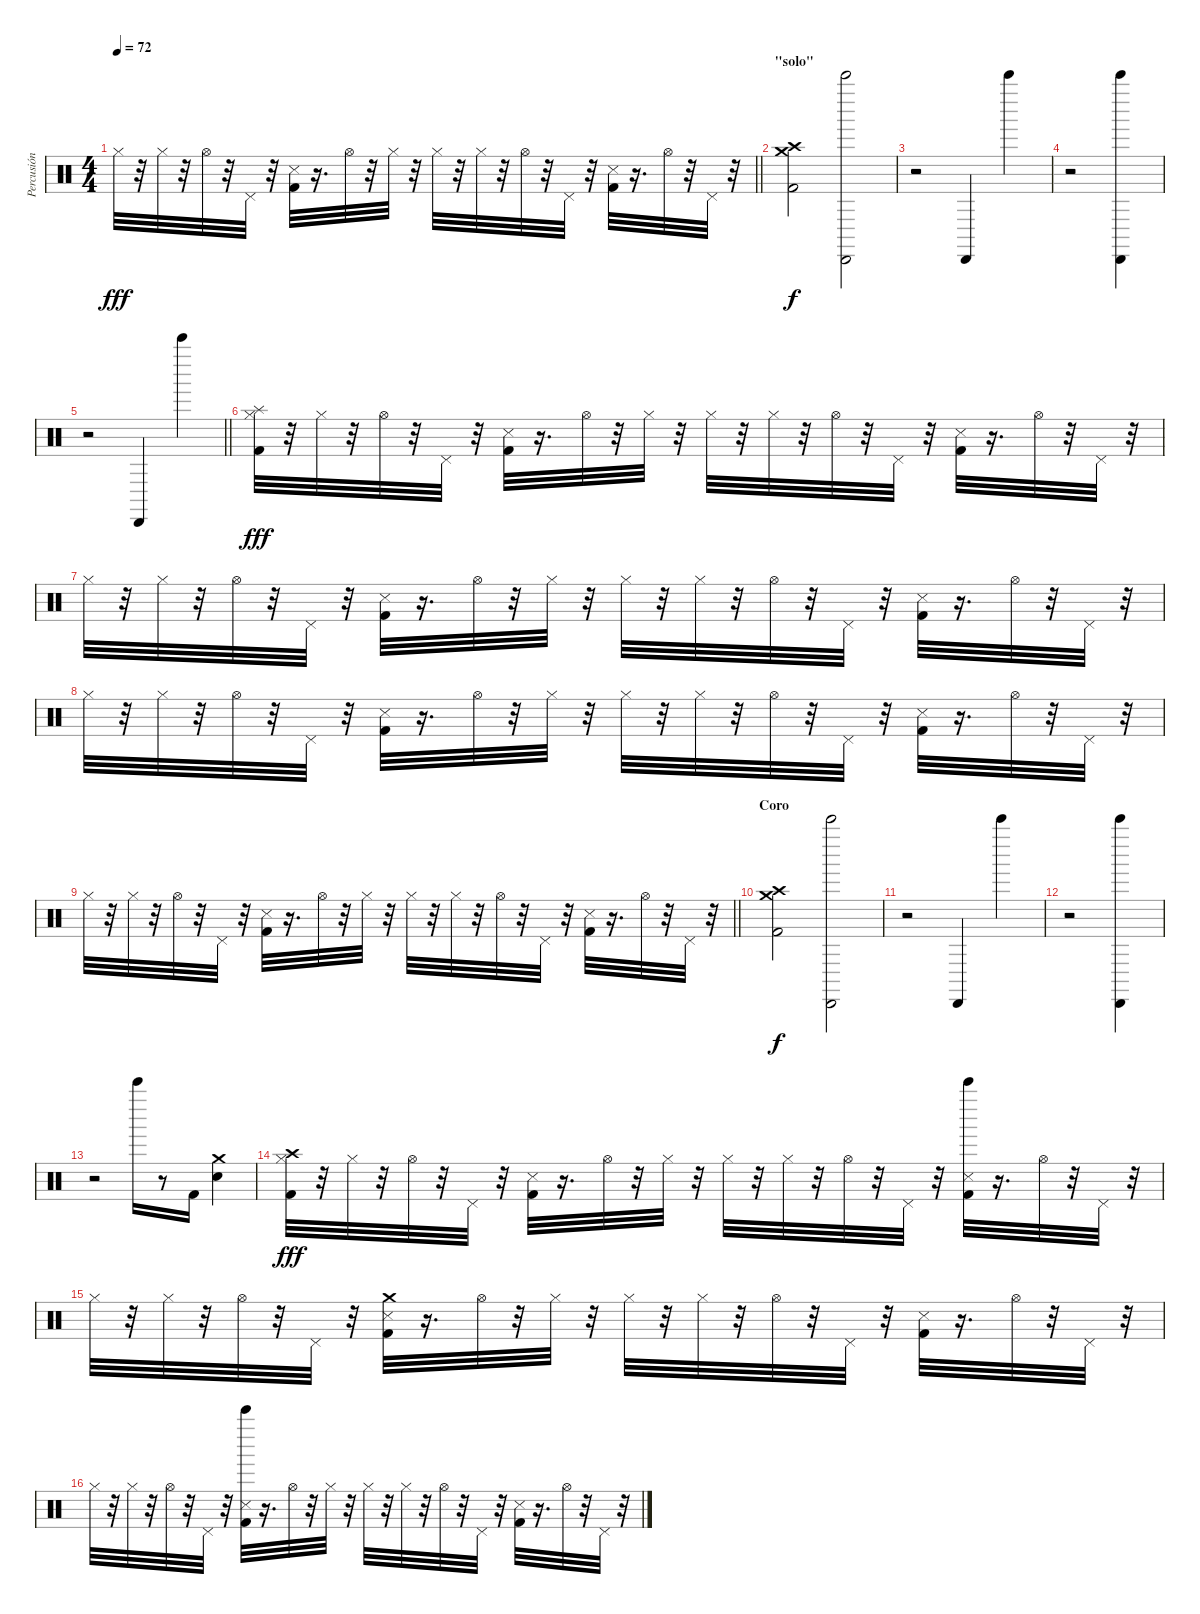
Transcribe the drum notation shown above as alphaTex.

\track ("Percusión" "Percusión") {instrument percussion}
\staff {score}
\articulation defaults
\ts (4 4)
\tempo 72
\clef neutral
\barLineRight lightlight
\ks c "Hi-Hat (closed)".32{dy fff}
r.32 "Hi-Hat (closed)".32 r.32 "Hi-Hat (open)".32 r.32 "Pedal Hi-Hat (hit)".32 r.32 ("Kick (hit) 2" "Snare (side stick) 3").32 r.16{d} "Hi-Hat (open)".32 r.32 "Hi-Hat (closed)".32 r.32 "Hi-Hat (closed)".32 r.32 "Hi-Hat (closed)".32 r.32 "Hi-Hat (open)".32 r.32 "Pedal Hi-Hat (hit)".32 r.32 ("Kick (hit) 2" "Snare (side stick) 3").32 r.16{d} "Hi-Hat (open)".32 r.32 "Pedal Hi-Hat (hit)".32 r.32 |
\section ("" "\"solo\"")
("Kick (hit) 2" "Crash high (hit)" "Crash medium (hit)").2{dy f} ("Cabasa (hit)" "Bell Tree (hit)").2 |
r.2 "Cabasa (hit)".4 "Bell Tree (hit)".4 |
r.2 ("Bell Tree (hit)" "Cabasa (hit)").4 |
\barLineRight lightlight
r.2 "Cabasa (hit)".4 "Bell Tree (hit)".4 |
("Hi-Hat (closed)" "Kick (hit) 2" "Splash (hit)").32{dy fff} r.32 "Hi-Hat (closed)".32 r.32 "Hi-Hat (open)".32 r.32 "Pedal Hi-Hat (hit)".32 r.32 ("Kick (hit) 2" "Snare (side stick) 3").32 r.16{d} "Hi-Hat (open)".32 r.32 "Hi-Hat (closed)".32 r.32 "Hi-Hat (closed)".32 r.32 "Hi-Hat (closed)".32 r.32 "Hi-Hat (open)".32 r.32 "Pedal Hi-Hat (hit)".32 r.32 ("Kick (hit) 2" "Snare (side stick) 3").32 r.16{d} "Hi-Hat (open)".32 r.32 "Pedal Hi-Hat (hit)".32 r.32 |
"Hi-Hat (closed)".32 r.32 "Hi-Hat (closed)".32 r.32 "Hi-Hat (open)".32 r.32 "Pedal Hi-Hat (hit)".32 r.32 ("Kick (hit) 2" "Snare (side stick) 3").32 r.16{d} "Hi-Hat (open)".32 r.32 "Hi-Hat (closed)".32 r.32 "Hi-Hat (closed)".32 r.32 "Hi-Hat (closed)".32 r.32 "Hi-Hat (open)".32 r.32 "Pedal Hi-Hat (hit)".32 r.32 ("Kick (hit) 2" "Snare (side stick) 3").32 r.16{d} "Hi-Hat (open)".32 r.32 "Pedal Hi-Hat (hit)".32 r.32 |
"Hi-Hat (closed)".32 r.32 "Hi-Hat (closed)".32 r.32 "Hi-Hat (open)".32 r.32 "Pedal Hi-Hat (hit)".32 r.32 ("Kick (hit) 2" "Snare (side stick) 3").32 r.16{d} "Hi-Hat (open)".32 r.32 "Hi-Hat (closed)".32 r.32 "Hi-Hat (closed)".32 r.32 "Hi-Hat (closed)".32 r.32 "Hi-Hat (open)".32 r.32 "Pedal Hi-Hat (hit)".32 r.32 ("Kick (hit) 2" "Snare (side stick) 3").32 r.16{d} "Hi-Hat (open)".32 r.32 "Pedal Hi-Hat (hit)".32 r.32 |
\barLineRight lightlight "Hi-Hat (closed)".32
r.32 "Hi-Hat (closed)".32 r.32 "Hi-Hat (open)".32 r.32 "Pedal Hi-Hat (hit)".32 r.32 ("Kick (hit) 2" "Snare (side stick) 3").32 r.16{d} "Hi-Hat (open)".32 r.32 "Hi-Hat (closed)".32 r.32 "Hi-Hat (closed)".32 r.32 "Hi-Hat (closed)".32 r.32 "Hi-Hat (open)".32 r.32 "Pedal Hi-Hat (hit)".32 r.32 ("Kick (hit) 2" "Snare (side stick) 3").32 r.16{d} "Hi-Hat (open)".32 r.32 "Pedal Hi-Hat (hit)".32 r.32 |
\section ("" "Coro")
("Kick (hit) 2" "Crash high (hit)" "Crash medium (hit)").2{dy f} ("Cabasa (hit)" "Bell Tree (hit)").2 |
r.2 "Cabasa (hit)".4 "Bell Tree (hit)".4 |
r.2 ("Bell Tree (hit)" "Cabasa (hit)").4 |
r.2 "Bell Tree (hit)".16 r.8 "Kick (hit) 2".16 ("Snare (hit) 2" "Crash medium (hit)").4 |
("Hi-Hat (closed)" "Kick (hit) 2" "Crash high (hit)").32{dy fff} r.32 "Hi-Hat (closed)".32 r.32 "Hi-Hat (open)".32 r.32 "Pedal Hi-Hat (hit)".32 r.32 ("Kick (hit) 2" "Snare (side stick) 3").32 r.16{d} "Hi-Hat (open)".32 r.32 "Hi-Hat (closed)".32 r.32 "Hi-Hat (closed)".32 r.32 "Hi-Hat (closed)".32 r.32 "Hi-Hat (open)".32 r.32 "Pedal Hi-Hat (hit)".32 r.32 ("Kick (hit) 2" "Snare (side stick) 3" "Bell Tree (hit)").32 r.16{d} "Hi-Hat (open)".32 r.32 "Pedal Hi-Hat (hit)".32 r.32 |
"Hi-Hat (closed)".32 r.32 "Hi-Hat (closed)".32 r.32 "Hi-Hat (open)".32 r.32 "Pedal Hi-Hat (hit)".32 r.32 ("Kick (hit) 2" "Snare (side stick) 3" "Crash medium (hit)").32 r.16{d} "Hi-Hat (open)".32 r.32 "Hi-Hat (closed)".32 r.32 "Hi-Hat (closed)".32 r.32 "Hi-Hat (closed)".32 r.32 "Hi-Hat (open)".32 r.32 "Pedal Hi-Hat (hit)".32 r.32 ("Kick (hit) 2" "Snare (side stick) 3").32 r.16{d} "Hi-Hat (open)".32 r.32 "Pedal Hi-Hat (hit)".32 r.32 |
"Hi-Hat (closed)".32 r.32 "Hi-Hat (closed)".32 r.32 "Hi-Hat (open)".32 r.32 "Pedal Hi-Hat (hit)".32 r.32 ("Kick (hit) 2" "Snare (side stick) 3" "Bell Tree (hit)").32 r.16{d} "Hi-Hat (open)".32 r.32 "Hi-Hat (closed)".32 r.32 "Hi-Hat (closed)".32 r.32 "Hi-Hat (closed)".32 r.32 "Hi-Hat (open)".32 r.32 "Pedal Hi-Hat (hit)".32 r.32 ("Kick (hit) 2" "Snare (side stick) 3").32 r.16{d} "Hi-Hat (open)".32 r.32 "Pedal Hi-Hat (hit)".32 r.32
